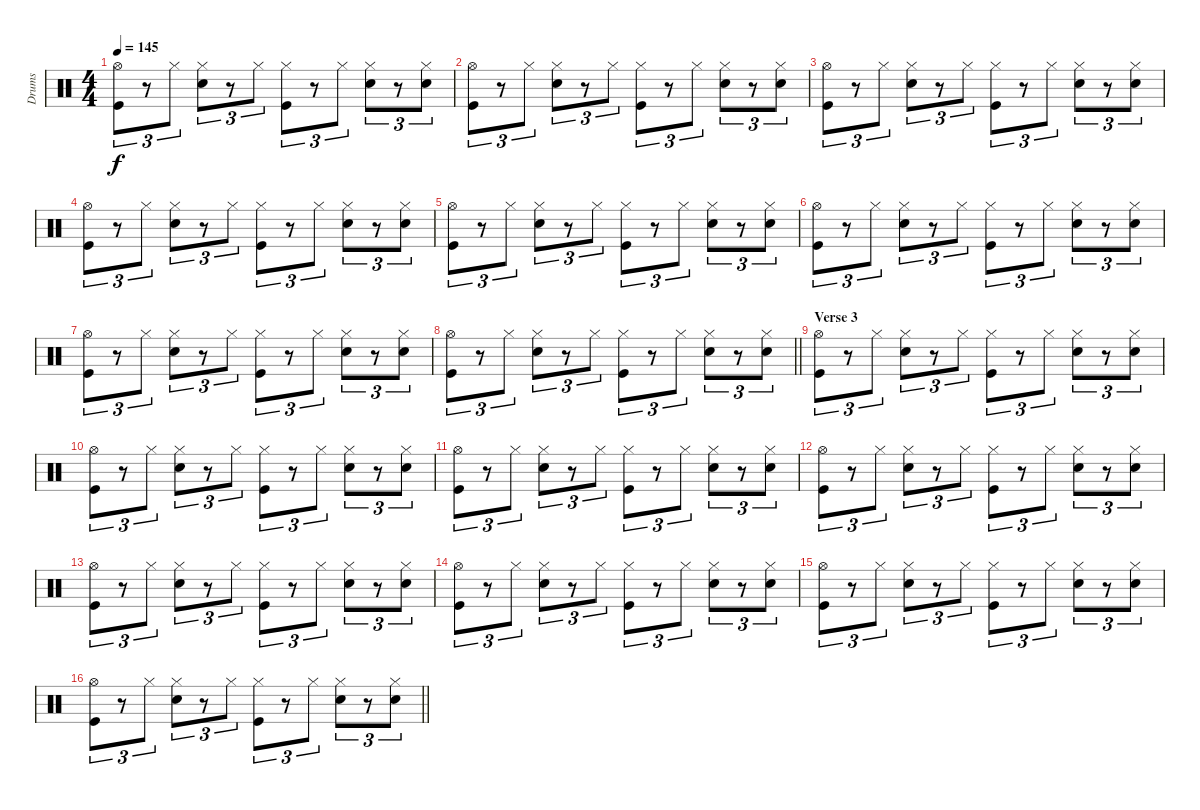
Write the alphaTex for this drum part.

\track ("Drums" "Drums") {instrument percussion}
\staff {score}
\articulation defaults
\ts (4 4)
\tempo 145
\clef neutral
\ks c
("Hi-Hat (open)" "Kick (hit)").8{tu (3 2) dy f} r.8{tu (3 2)} "Hi-Hat (closed)".8{tu (3 2)} ("Hi-Hat (closed)" "Snare (hit) 2").8{tu (3 2)} r.8{tu (3 2)} "Hi-Hat (closed)".8{tu (3 2)} ("Hi-Hat (closed)" "Kick (hit)").8{tu (3 2)} r.8{tu (3 2)} "Hi-Hat (closed)".8{tu (3 2)} ("Hi-Hat (closed)" "Snare (hit) 2").8{tu (3 2)} r.8{tu (3 2)} ("Hi-Hat (closed)" "Snare (hit) 2").8{tu (3 2)} |
("Hi-Hat (open)" "Kick (hit)").8{tu (3 2)} r.8{tu (3 2)} "Hi-Hat (closed)".8{tu (3 2)} ("Hi-Hat (closed)" "Snare (hit) 2").8{tu (3 2)} r.8{tu (3 2)} "Hi-Hat (closed)".8{tu (3 2)} ("Hi-Hat (closed)" "Kick (hit)").8{tu (3 2)} r.8{tu (3 2)} "Hi-Hat (closed)".8{tu (3 2)} ("Hi-Hat (closed)" "Snare (hit) 2").8{tu (3 2)} r.8{tu (3 2)} ("Hi-Hat (closed)" "Snare (hit) 2").8{tu (3 2)} |
("Hi-Hat (open)" "Kick (hit)").8{tu (3 2)} r.8{tu (3 2)} "Hi-Hat (closed)".8{tu (3 2)} ("Hi-Hat (closed)" "Snare (hit) 2").8{tu (3 2)} r.8{tu (3 2)} "Hi-Hat (closed)".8{tu (3 2)} ("Hi-Hat (closed)" "Kick (hit)").8{tu (3 2)} r.8{tu (3 2)} "Hi-Hat (closed)".8{tu (3 2)} ("Hi-Hat (closed)" "Snare (hit) 2").8{tu (3 2)} r.8{tu (3 2)} ("Hi-Hat (closed)" "Snare (hit) 2").8{tu (3 2)} |
("Hi-Hat (open)" "Kick (hit)").8{tu (3 2)} r.8{tu (3 2)} "Hi-Hat (closed)".8{tu (3 2)} ("Hi-Hat (closed)" "Snare (hit) 2").8{tu (3 2)} r.8{tu (3 2)} "Hi-Hat (closed)".8{tu (3 2)} ("Hi-Hat (closed)" "Kick (hit)").8{tu (3 2)} r.8{tu (3 2)} "Hi-Hat (closed)".8{tu (3 2)} ("Hi-Hat (closed)" "Snare (hit) 2").8{tu (3 2)} r.8{tu (3 2)} ("Hi-Hat (closed)" "Snare (hit) 2").8{tu (3 2)} |
("Hi-Hat (open)" "Kick (hit)").8{tu (3 2)} r.8{tu (3 2)} "Hi-Hat (closed)".8{tu (3 2)} ("Hi-Hat (closed)" "Snare (hit) 2").8{tu (3 2)} r.8{tu (3 2)} "Hi-Hat (closed)".8{tu (3 2)} ("Hi-Hat (closed)" "Kick (hit)").8{tu (3 2)} r.8{tu (3 2)} "Hi-Hat (closed)".8{tu (3 2)} ("Hi-Hat (closed)" "Snare (hit) 2").8{tu (3 2)} r.8{tu (3 2)} ("Hi-Hat (closed)" "Snare (hit) 2").8{tu (3 2)} |
("Hi-Hat (open)" "Kick (hit)").8{tu (3 2)} r.8{tu (3 2)} "Hi-Hat (closed)".8{tu (3 2)} ("Hi-Hat (closed)" "Snare (hit) 2").8{tu (3 2)} r.8{tu (3 2)} "Hi-Hat (closed)".8{tu (3 2)} ("Hi-Hat (closed)" "Kick (hit)").8{tu (3 2)} r.8{tu (3 2)} "Hi-Hat (closed)".8{tu (3 2)} ("Hi-Hat (closed)" "Snare (hit) 2").8{tu (3 2)} r.8{tu (3 2)} ("Hi-Hat (closed)" "Snare (hit) 2").8{tu (3 2)} |
("Hi-Hat (open)" "Kick (hit)").8{tu (3 2)} r.8{tu (3 2)} "Hi-Hat (closed)".8{tu (3 2)} ("Hi-Hat (closed)" "Snare (hit) 2").8{tu (3 2)} r.8{tu (3 2)} "Hi-Hat (closed)".8{tu (3 2)} ("Hi-Hat (closed)" "Kick (hit)").8{tu (3 2)} r.8{tu (3 2)} "Hi-Hat (closed)".8{tu (3 2)} ("Hi-Hat (closed)" "Snare (hit) 2").8{tu (3 2)} r.8{tu (3 2)} ("Hi-Hat (closed)" "Snare (hit) 2").8{tu (3 2)} |
\barLineRight lightlight
("Hi-Hat (open)" "Kick (hit)").8{tu (3 2)} r.8{tu (3 2)} "Hi-Hat (closed)".8{tu (3 2)} ("Hi-Hat (closed)" "Snare (hit) 2").8{tu (3 2)} r.8{tu (3 2)} "Hi-Hat (closed)".8{tu (3 2)} ("Hi-Hat (closed)" "Kick (hit)").8{tu (3 2)} r.8{tu (3 2)} "Hi-Hat (closed)".8{tu (3 2)} ("Hi-Hat (closed)" "Snare (hit) 2").8{tu (3 2)} r.8{tu (3 2)} ("Hi-Hat (closed)" "Snare (hit) 2").8{tu (3 2)} |
\section ("" "Verse 3")
("Hi-Hat (open)" "Kick (hit)").8{tu (3 2)} r.8{tu (3 2)} "Hi-Hat (closed)".8{tu (3 2)} ("Hi-Hat (closed)" "Snare (hit) 2").8{tu (3 2)} r.8{tu (3 2)} "Hi-Hat (closed)".8{tu (3 2)} ("Hi-Hat (closed)" "Kick (hit)").8{tu (3 2)} r.8{tu (3 2)} "Hi-Hat (closed)".8{tu (3 2)} ("Hi-Hat (closed)" "Snare (hit) 2").8{tu (3 2)} r.8{tu (3 2)} ("Hi-Hat (closed)" "Snare (hit) 2").8{tu (3 2)} |
("Hi-Hat (open)" "Kick (hit)").8{tu (3 2)} r.8{tu (3 2)} "Hi-Hat (closed)".8{tu (3 2)} ("Hi-Hat (closed)" "Snare (hit) 2").8{tu (3 2)} r.8{tu (3 2)} "Hi-Hat (closed)".8{tu (3 2)} ("Hi-Hat (closed)" "Kick (hit)").8{tu (3 2)} r.8{tu (3 2)} "Hi-Hat (closed)".8{tu (3 2)} ("Hi-Hat (closed)" "Snare (hit) 2").8{tu (3 2)} r.8{tu (3 2)} ("Hi-Hat (closed)" "Snare (hit) 2").8{tu (3 2)} |
("Hi-Hat (open)" "Kick (hit)").8{tu (3 2)} r.8{tu (3 2)} "Hi-Hat (closed)".8{tu (3 2)} ("Hi-Hat (closed)" "Snare (hit) 2").8{tu (3 2)} r.8{tu (3 2)} "Hi-Hat (closed)".8{tu (3 2)} ("Hi-Hat (closed)" "Kick (hit)").8{tu (3 2)} r.8{tu (3 2)} "Hi-Hat (closed)".8{tu (3 2)} ("Hi-Hat (closed)" "Snare (hit) 2").8{tu (3 2)} r.8{tu (3 2)} ("Hi-Hat (closed)" "Snare (hit) 2").8{tu (3 2)} |
("Hi-Hat (open)" "Kick (hit)").8{tu (3 2)} r.8{tu (3 2)} "Hi-Hat (closed)".8{tu (3 2)} ("Hi-Hat (closed)" "Snare (hit) 2").8{tu (3 2)} r.8{tu (3 2)} "Hi-Hat (closed)".8{tu (3 2)} ("Hi-Hat (closed)" "Kick (hit)").8{tu (3 2)} r.8{tu (3 2)} "Hi-Hat (closed)".8{tu (3 2)} ("Hi-Hat (closed)" "Snare (hit) 2").8{tu (3 2)} r.8{tu (3 2)} ("Hi-Hat (closed)" "Snare (hit) 2").8{tu (3 2)} |
("Hi-Hat (open)" "Kick (hit)").8{tu (3 2)} r.8{tu (3 2)} "Hi-Hat (closed)".8{tu (3 2)} ("Hi-Hat (closed)" "Snare (hit) 2").8{tu (3 2)} r.8{tu (3 2)} "Hi-Hat (closed)".8{tu (3 2)} ("Hi-Hat (closed)" "Kick (hit)").8{tu (3 2)} r.8{tu (3 2)} "Hi-Hat (closed)".8{tu (3 2)} ("Hi-Hat (closed)" "Snare (hit) 2").8{tu (3 2)} r.8{tu (3 2)} ("Hi-Hat (closed)" "Snare (hit) 2").8{tu (3 2)} |
("Hi-Hat (open)" "Kick (hit)").8{tu (3 2)} r.8{tu (3 2)} "Hi-Hat (closed)".8{tu (3 2)} ("Hi-Hat (closed)" "Snare (hit) 2").8{tu (3 2)} r.8{tu (3 2)} "Hi-Hat (closed)".8{tu (3 2)} ("Hi-Hat (closed)" "Kick (hit)").8{tu (3 2)} r.8{tu (3 2)} "Hi-Hat (closed)".8{tu (3 2)} ("Hi-Hat (closed)" "Snare (hit) 2").8{tu (3 2)} r.8{tu (3 2)} ("Hi-Hat (closed)" "Snare (hit) 2").8{tu (3 2)} |
("Hi-Hat (open)" "Kick (hit)").8{tu (3 2)} r.8{tu (3 2)} "Hi-Hat (closed)".8{tu (3 2)} ("Hi-Hat (closed)" "Snare (hit) 2").8{tu (3 2)} r.8{tu (3 2)} "Hi-Hat (closed)".8{tu (3 2)} ("Hi-Hat (closed)" "Kick (hit)").8{tu (3 2)} r.8{tu (3 2)} "Hi-Hat (closed)".8{tu (3 2)} ("Hi-Hat (closed)" "Snare (hit) 2").8{tu (3 2)} r.8{tu (3 2)} ("Hi-Hat (closed)" "Snare (hit) 2").8{tu (3 2)} |
\barLineRight lightlight
("Hi-Hat (open)" "Kick (hit)").8{tu (3 2)} r.8{tu (3 2)} "Hi-Hat (closed)".8{tu (3 2)} ("Hi-Hat (closed)" "Snare (hit) 2").8{tu (3 2)} r.8{tu (3 2)} "Hi-Hat (closed)".8{tu (3 2)} ("Hi-Hat (closed)" "Kick (hit)").8{tu (3 2)} r.8{tu (3 2)} "Hi-Hat (closed)".8{tu (3 2)} ("Hi-Hat (closed)" "Snare (hit) 2").8{tu (3 2)} r.8{tu (3 2)} ("Hi-Hat (closed)" "Snare (hit) 2").8{tu (3 2)}
